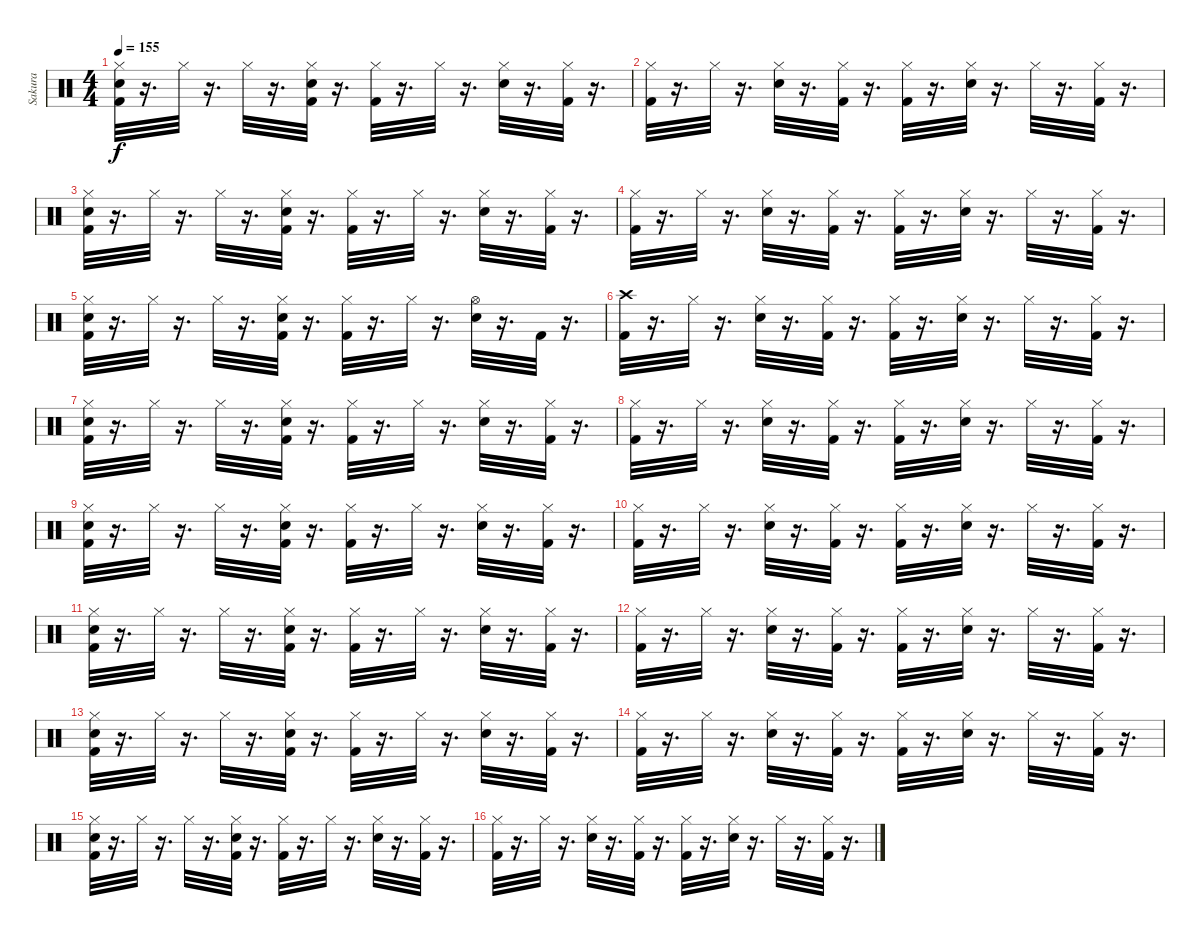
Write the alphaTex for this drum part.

\track ("Sakura" "Sakura") {instrument percussion}
\staff {score}
\articulation defaults
\ts (4 4)
\tempo 155
\clef neutral
\ks c
("Hi-Hat (closed)" "Snare (hit) 2" "Kick (hit) 2").32{dy f} r.16{d} "Hi-Hat (closed)".32 r.16{d} "Hi-Hat (closed)".32 r.16{d} ("Hi-Hat (closed)" "Kick (hit) 2" "Snare (hit) 2").32 r.16{d} ("Hi-Hat (closed)" "Kick (hit) 2").32 r.16{d} "Hi-Hat (closed)".32 r.16{d} ("Hi-Hat (closed)" "Snare (hit) 2").32 r.16{d} ("Hi-Hat (closed)" "Kick (hit) 2").32 r.16{d} |
("Kick (hit) 2" "Hi-Hat (closed)").32 r.16{d} "Hi-Hat (closed)".32 r.16{d} ("Hi-Hat (closed)" "Snare (hit) 2").32 r.16{d} ("Hi-Hat (closed)" "Kick (hit) 2").32 r.16{d} ("Hi-Hat (closed)" "Kick (hit) 2").32 r.16{d} ("Hi-Hat (closed)" "Snare (hit) 2").32 r.16{d} "Hi-Hat (closed)".32 r.16{d} ("Hi-Hat (closed)" "Kick (hit) 2").32 r.16{d} |
("Hi-Hat (closed)" "Snare (hit) 2" "Kick (hit) 2").32 r.16{d} "Hi-Hat (closed)".32 r.16{d} "Hi-Hat (closed)".32 r.16{d} ("Hi-Hat (closed)" "Kick (hit) 2" "Snare (hit) 2").32 r.16{d} ("Hi-Hat (closed)" "Kick (hit) 2").32 r.16{d} "Hi-Hat (closed)".32 r.16{d} ("Hi-Hat (closed)" "Snare (hit) 2").32 r.16{d} ("Hi-Hat (closed)" "Kick (hit) 2").32 r.16{d} |
("Kick (hit) 2" "Hi-Hat (closed)").32 r.16{d} "Hi-Hat (closed)".32 r.16{d} ("Hi-Hat (closed)" "Snare (hit) 2").32 r.16{d} ("Hi-Hat (closed)" "Kick (hit) 2").32 r.16{d} ("Hi-Hat (closed)" "Kick (hit) 2").32 r.16{d} ("Hi-Hat (closed)" "Snare (hit) 2").32 r.16{d} "Hi-Hat (closed)".32 r.16{d} ("Hi-Hat (closed)" "Kick (hit) 2").32 r.16{d} |
("Hi-Hat (closed)" "Snare (hit) 2" "Kick (hit) 2").32 r.16{d} "Hi-Hat (closed)".32 r.16{d} "Hi-Hat (closed)".32 r.16{d} ("Hi-Hat (closed)" "Kick (hit) 2" "Snare (hit) 2").32 r.16{d} ("Hi-Hat (closed)" "Kick (hit) 2").32 r.16{d} "Hi-Hat (closed)".32 r.16{d} ("Snare (hit) 2" "Hi-Hat (open)").32 r.16{d} "Kick (hit) 2".32 r.16{d} |
("Crash high (hit)" "Kick (hit) 2").32 r.16{d} "Hi-Hat (closed)".32 r.16{d} ("Hi-Hat (closed)" "Snare (hit) 2").32 r.16{d} ("Hi-Hat (closed)" "Kick (hit) 2").32 r.16{d} ("Hi-Hat (closed)" "Kick (hit) 2").32 r.16{d} ("Hi-Hat (closed)" "Snare (hit) 2").32 r.16{d} "Hi-Hat (closed)".32 r.16{d} ("Hi-Hat (closed)" "Kick (hit) 2").32 r.16{d} |
("Hi-Hat (closed)" "Snare (hit) 2" "Kick (hit) 2").32 r.16{d} "Hi-Hat (closed)".32 r.16{d} "Hi-Hat (closed)".32 r.16{d} ("Hi-Hat (closed)" "Kick (hit) 2" "Snare (hit) 2").32 r.16{d} ("Hi-Hat (closed)" "Kick (hit) 2").32 r.16{d} "Hi-Hat (closed)".32 r.16{d} ("Hi-Hat (closed)" "Snare (hit) 2").32 r.16{d} ("Hi-Hat (closed)" "Kick (hit) 2").32 r.16{d} |
("Kick (hit) 2" "Hi-Hat (closed)").32 r.16{d} "Hi-Hat (closed)".32 r.16{d} ("Hi-Hat (closed)" "Snare (hit) 2").32 r.16{d} ("Hi-Hat (closed)" "Kick (hit) 2").32 r.16{d} ("Hi-Hat (closed)" "Kick (hit) 2").32 r.16{d} ("Hi-Hat (closed)" "Snare (hit) 2").32 r.16{d} "Hi-Hat (closed)".32 r.16{d} ("Hi-Hat (closed)" "Kick (hit) 2").32 r.16{d} |
("Hi-Hat (closed)" "Snare (hit) 2" "Kick (hit) 2").32 r.16{d} "Hi-Hat (closed)".32 r.16{d} "Hi-Hat (closed)".32 r.16{d} ("Hi-Hat (closed)" "Kick (hit) 2" "Snare (hit) 2").32 r.16{d} ("Hi-Hat (closed)" "Kick (hit) 2").32 r.16{d} "Hi-Hat (closed)".32 r.16{d} ("Hi-Hat (closed)" "Snare (hit) 2").32 r.16{d} ("Hi-Hat (closed)" "Kick (hit) 2").32 r.16{d} |
("Kick (hit) 2" "Hi-Hat (closed)").32 r.16{d} "Hi-Hat (closed)".32 r.16{d} ("Hi-Hat (closed)" "Snare (hit) 2").32 r.16{d} ("Hi-Hat (closed)" "Kick (hit) 2").32 r.16{d} ("Hi-Hat (closed)" "Kick (hit) 2").32 r.16{d} ("Hi-Hat (closed)" "Snare (hit) 2").32 r.16{d} "Hi-Hat (closed)".32 r.16{d} ("Hi-Hat (closed)" "Kick (hit) 2").32 r.16{d} |
("Hi-Hat (closed)" "Snare (hit) 2" "Kick (hit) 2").32 r.16{d} "Hi-Hat (closed)".32 r.16{d} "Hi-Hat (closed)".32 r.16{d} ("Hi-Hat (closed)" "Kick (hit) 2" "Snare (hit) 2").32 r.16{d} ("Hi-Hat (closed)" "Kick (hit) 2").32 r.16{d} "Hi-Hat (closed)".32 r.16{d} ("Hi-Hat (closed)" "Snare (hit) 2").32 r.16{d} ("Hi-Hat (closed)" "Kick (hit) 2").32 r.16{d} |
("Kick (hit) 2" "Hi-Hat (closed)").32 r.16{d} "Hi-Hat (closed)".32 r.16{d} ("Hi-Hat (closed)" "Snare (hit) 2").32 r.16{d} ("Hi-Hat (closed)" "Kick (hit) 2").32 r.16{d} ("Hi-Hat (closed)" "Kick (hit) 2").32 r.16{d} ("Hi-Hat (closed)" "Snare (hit) 2").32 r.16{d} "Hi-Hat (closed)".32 r.16{d} ("Hi-Hat (closed)" "Kick (hit) 2").32 r.16{d} |
("Hi-Hat (closed)" "Snare (hit) 2" "Kick (hit) 2").32 r.16{d} "Hi-Hat (closed)".32 r.16{d} "Hi-Hat (closed)".32 r.16{d} ("Hi-Hat (closed)" "Kick (hit) 2" "Snare (hit) 2").32 r.16{d} ("Hi-Hat (closed)" "Kick (hit) 2").32 r.16{d} "Hi-Hat (closed)".32 r.16{d} ("Hi-Hat (closed)" "Snare (hit) 2").32 r.16{d} ("Hi-Hat (closed)" "Kick (hit) 2").32 r.16{d} |
("Kick (hit) 2" "Hi-Hat (closed)").32 r.16{d} "Hi-Hat (closed)".32 r.16{d} ("Hi-Hat (closed)" "Snare (hit) 2").32 r.16{d} ("Hi-Hat (closed)" "Kick (hit) 2").32 r.16{d} ("Hi-Hat (closed)" "Kick (hit) 2").32 r.16{d} ("Hi-Hat (closed)" "Snare (hit) 2").32 r.16{d} "Hi-Hat (closed)".32 r.16{d} ("Hi-Hat (closed)" "Kick (hit) 2").32 r.16{d} |
("Hi-Hat (closed)" "Snare (hit) 2" "Kick (hit) 2").32 r.16{d} "Hi-Hat (closed)".32 r.16{d} "Hi-Hat (closed)".32 r.16{d} ("Hi-Hat (closed)" "Kick (hit) 2" "Snare (hit) 2").32 r.16{d} ("Hi-Hat (closed)" "Kick (hit) 2").32 r.16{d} "Hi-Hat (closed)".32 r.16{d} ("Hi-Hat (closed)" "Snare (hit) 2").32 r.16{d} ("Hi-Hat (closed)" "Kick (hit) 2").32 r.16{d} |
("Kick (hit) 2" "Hi-Hat (closed)").32 r.16{d} "Hi-Hat (closed)".32 r.16{d} ("Hi-Hat (closed)" "Snare (hit) 2").32 r.16{d} ("Hi-Hat (closed)" "Kick (hit) 2").32 r.16{d} ("Hi-Hat (closed)" "Kick (hit) 2").32 r.16{d} ("Hi-Hat (closed)" "Snare (hit) 2").32 r.16{d} "Hi-Hat (closed)".32 r.16{d} ("Hi-Hat (closed)" "Kick (hit) 2").32 r.16{d}
